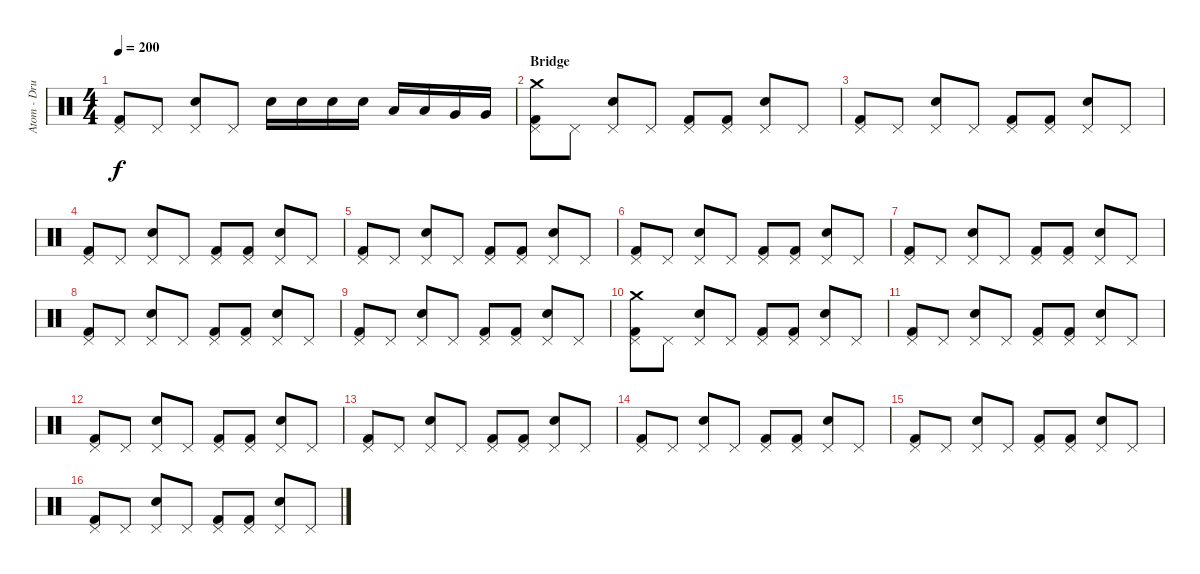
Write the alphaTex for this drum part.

\track ("Atom - Drums" "Atom - Dru") {instrument percussion}
\staff {score}
\articulation defaults
\ts (4 4)
\tempo 200
\clef neutral
\ks c
("Pedal Hi-Hat (hit)" "Kick (hit) 2").8{dy f} "Pedal Hi-Hat (hit)".8 ("Pedal Hi-Hat (hit)" "Electric Snare (hit)").8 "Pedal Hi-Hat (hit)".8 "Electric Snare (hit)".16 "Electric Snare (hit)".16 "Electric Snare (hit)".16 "Electric Snare (hit)".16 "Low Tom (hit)".16 "Low Tom (hit)".16 "Very Low Tom (hit)".16 "Very Low Tom (hit)".16 |
\section ("" "Bridge")
("Crash medium (hit)" "Pedal Hi-Hat (hit)" "Kick (hit) 2").8 "Pedal Hi-Hat (hit)".8 ("Pedal Hi-Hat (hit)" "Electric Snare (hit)").8 "Pedal Hi-Hat (hit)".8 ("Pedal Hi-Hat (hit)" "Kick (hit) 2").8 ("Pedal Hi-Hat (hit)" "Kick (hit) 2").8 ("Pedal Hi-Hat (hit)" "Electric Snare (hit)").8 "Pedal Hi-Hat (hit)".8 |
("Pedal Hi-Hat (hit)" "Kick (hit) 2").8 "Pedal Hi-Hat (hit)".8 ("Pedal Hi-Hat (hit)" "Electric Snare (hit)").8 "Pedal Hi-Hat (hit)".8 ("Pedal Hi-Hat (hit)" "Kick (hit) 2").8 ("Pedal Hi-Hat (hit)" "Kick (hit) 2").8 ("Pedal Hi-Hat (hit)" "Electric Snare (hit)").8 "Pedal Hi-Hat (hit)".8 |
("Pedal Hi-Hat (hit)" "Kick (hit) 2").8 "Pedal Hi-Hat (hit)".8 ("Pedal Hi-Hat (hit)" "Electric Snare (hit)").8 "Pedal Hi-Hat (hit)".8 ("Pedal Hi-Hat (hit)" "Kick (hit) 2").8 ("Pedal Hi-Hat (hit)" "Kick (hit) 2").8 ("Pedal Hi-Hat (hit)" "Electric Snare (hit)").8 "Pedal Hi-Hat (hit)".8 |
("Pedal Hi-Hat (hit)" "Kick (hit) 2").8 "Pedal Hi-Hat (hit)".8 ("Pedal Hi-Hat (hit)" "Electric Snare (hit)").8 "Pedal Hi-Hat (hit)".8 ("Pedal Hi-Hat (hit)" "Kick (hit) 2").8 ("Pedal Hi-Hat (hit)" "Kick (hit) 2").8 ("Pedal Hi-Hat (hit)" "Electric Snare (hit)").8 "Pedal Hi-Hat (hit)".8 |
("Pedal Hi-Hat (hit)" "Kick (hit) 2").8 "Pedal Hi-Hat (hit)".8 ("Pedal Hi-Hat (hit)" "Electric Snare (hit)").8 "Pedal Hi-Hat (hit)".8 ("Pedal Hi-Hat (hit)" "Kick (hit) 2").8 ("Pedal Hi-Hat (hit)" "Kick (hit) 2").8 ("Pedal Hi-Hat (hit)" "Electric Snare (hit)").8 "Pedal Hi-Hat (hit)".8 |
("Pedal Hi-Hat (hit)" "Kick (hit) 2").8 "Pedal Hi-Hat (hit)".8 ("Pedal Hi-Hat (hit)" "Electric Snare (hit)").8 "Pedal Hi-Hat (hit)".8 ("Pedal Hi-Hat (hit)" "Kick (hit) 2").8 ("Pedal Hi-Hat (hit)" "Kick (hit) 2").8 ("Pedal Hi-Hat (hit)" "Electric Snare (hit)").8 "Pedal Hi-Hat (hit)".8 |
("Pedal Hi-Hat (hit)" "Kick (hit) 2").8 "Pedal Hi-Hat (hit)".8 ("Pedal Hi-Hat (hit)" "Electric Snare (hit)").8 "Pedal Hi-Hat (hit)".8 ("Pedal Hi-Hat (hit)" "Kick (hit) 2").8 ("Pedal Hi-Hat (hit)" "Kick (hit) 2").8 ("Pedal Hi-Hat (hit)" "Electric Snare (hit)").8 "Pedal Hi-Hat (hit)".8 |
("Pedal Hi-Hat (hit)" "Kick (hit) 2").8 "Pedal Hi-Hat (hit)".8 ("Pedal Hi-Hat (hit)" "Electric Snare (hit)").8 "Pedal Hi-Hat (hit)".8 ("Pedal Hi-Hat (hit)" "Kick (hit) 2").8 ("Pedal Hi-Hat (hit)" "Kick (hit) 2").8 ("Pedal Hi-Hat (hit)" "Electric Snare (hit)").8 "Pedal Hi-Hat (hit)".8 |
("Crash medium (hit)" "Pedal Hi-Hat (hit)" "Kick (hit) 2").8 "Pedal Hi-Hat (hit)".8 ("Pedal Hi-Hat (hit)" "Electric Snare (hit)").8 "Pedal Hi-Hat (hit)".8 ("Pedal Hi-Hat (hit)" "Kick (hit) 2").8 ("Pedal Hi-Hat (hit)" "Kick (hit) 2").8 ("Pedal Hi-Hat (hit)" "Electric Snare (hit)").8 "Pedal Hi-Hat (hit)".8 |
("Pedal Hi-Hat (hit)" "Kick (hit) 2").8 "Pedal Hi-Hat (hit)".8 ("Pedal Hi-Hat (hit)" "Electric Snare (hit)").8 "Pedal Hi-Hat (hit)".8 ("Pedal Hi-Hat (hit)" "Kick (hit) 2").8 ("Pedal Hi-Hat (hit)" "Kick (hit) 2").8 ("Pedal Hi-Hat (hit)" "Electric Snare (hit)").8 "Pedal Hi-Hat (hit)".8 |
("Pedal Hi-Hat (hit)" "Kick (hit) 2").8 "Pedal Hi-Hat (hit)".8 ("Pedal Hi-Hat (hit)" "Electric Snare (hit)").8 "Pedal Hi-Hat (hit)".8 ("Pedal Hi-Hat (hit)" "Kick (hit) 2").8 ("Pedal Hi-Hat (hit)" "Kick (hit) 2").8 ("Pedal Hi-Hat (hit)" "Electric Snare (hit)").8 "Pedal Hi-Hat (hit)".8 |
("Pedal Hi-Hat (hit)" "Kick (hit) 2").8 "Pedal Hi-Hat (hit)".8 ("Pedal Hi-Hat (hit)" "Electric Snare (hit)").8 "Pedal Hi-Hat (hit)".8 ("Pedal Hi-Hat (hit)" "Kick (hit) 2").8 ("Pedal Hi-Hat (hit)" "Kick (hit) 2").8 ("Pedal Hi-Hat (hit)" "Electric Snare (hit)").8 "Pedal Hi-Hat (hit)".8 |
("Pedal Hi-Hat (hit)" "Kick (hit) 2").8 "Pedal Hi-Hat (hit)".8 ("Pedal Hi-Hat (hit)" "Electric Snare (hit)").8 "Pedal Hi-Hat (hit)".8 ("Pedal Hi-Hat (hit)" "Kick (hit) 2").8 ("Pedal Hi-Hat (hit)" "Kick (hit) 2").8 ("Pedal Hi-Hat (hit)" "Electric Snare (hit)").8 "Pedal Hi-Hat (hit)".8 |
("Pedal Hi-Hat (hit)" "Kick (hit) 2").8 "Pedal Hi-Hat (hit)".8 ("Pedal Hi-Hat (hit)" "Electric Snare (hit)").8 "Pedal Hi-Hat (hit)".8 ("Pedal Hi-Hat (hit)" "Kick (hit) 2").8 ("Pedal Hi-Hat (hit)" "Kick (hit) 2").8 ("Pedal Hi-Hat (hit)" "Electric Snare (hit)").8 "Pedal Hi-Hat (hit)".8 |
("Pedal Hi-Hat (hit)" "Kick (hit) 2").8 "Pedal Hi-Hat (hit)".8 ("Pedal Hi-Hat (hit)" "Electric Snare (hit)").8 "Pedal Hi-Hat (hit)".8 ("Pedal Hi-Hat (hit)" "Kick (hit) 2").8 ("Pedal Hi-Hat (hit)" "Kick (hit) 2").8 ("Pedal Hi-Hat (hit)" "Electric Snare (hit)").8 "Pedal Hi-Hat (hit)".8
